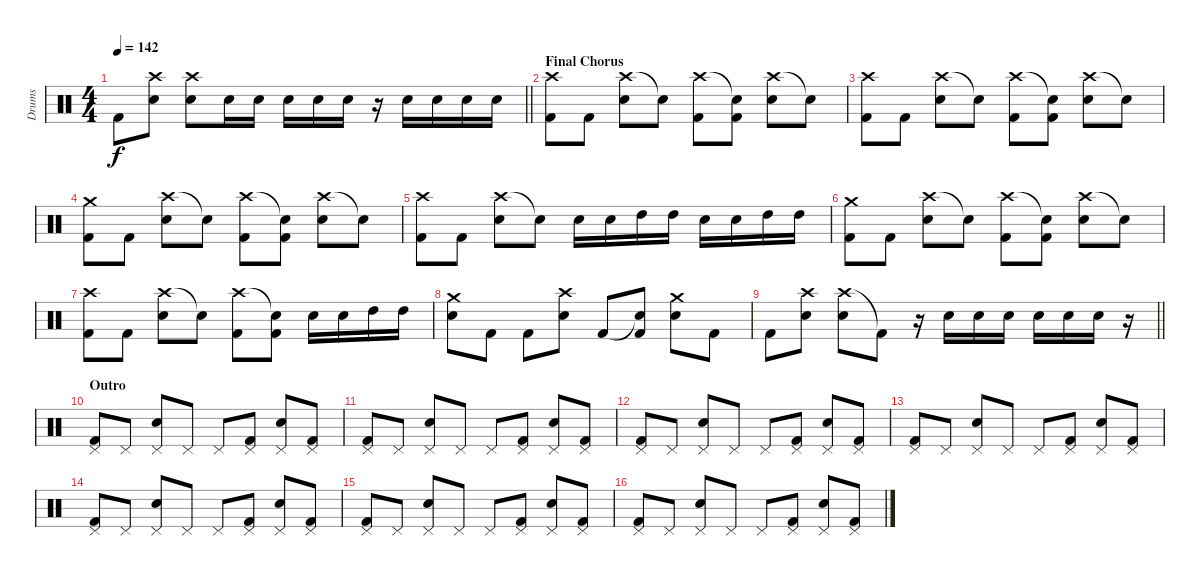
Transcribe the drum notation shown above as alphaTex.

\track ("Drums" "Drums") {instrument percussion}
\staff {score}
\articulation defaults
\ts (4 4)
\tempo 142
\clef neutral
\barLineRight lightlight
\ks c "Kick (hit) 2".8{dy f}
("Crash high (hit)" "Electric Snare (hit)").8 ("Crash high (hit)" "Electric Snare (hit)").8 "Electric Snare (hit)".16 "Electric Snare (hit)".16 "Electric Snare (hit)".16 "Electric Snare (hit)".16 "Electric Snare (hit)".16 r.16 "Electric Snare (hit)".16 "Electric Snare (hit)".16 "Electric Snare (hit)".16 "Electric Snare (hit)".16 |
\section ("" "Final Chorus")
("Crash high (hit)" "Kick (hit) 2").8 "Kick (hit) 2".8 ("Crash high (hit)" "Electric Snare (hit)").8 "Snare (hit)"{t}.8 ("Crash high (hit)" "Kick (hit) 2").8 ("Snare (hit)"{t} "Kick (hit) 2").8 ("Crash high (hit)" "Electric Snare (hit)").8 "Snare (hit)"{t}.8 |
("Crash high (hit)" "Kick (hit) 2").8 "Kick (hit) 2".8 ("Crash high (hit)" "Electric Snare (hit)").8 "Snare (hit)"{t}.8 ("Crash high (hit)" "Kick (hit) 2").8 ("Snare (hit)"{t} "Kick (hit) 2").8 ("Crash high (hit)" "Electric Snare (hit)").8 "Snare (hit)"{t}.8 |
("Crash medium (hit)" "Kick (hit) 2").8 "Kick (hit) 2".8 ("Crash high (hit)" "Electric Snare (hit)").8 "Snare (hit)"{t}.8 ("Crash high (hit)" "Kick (hit) 2").8 ("Snare (hit)"{t} "Kick (hit) 2").8 ("Crash high (hit)" "Electric Snare (hit)").8 "Snare (hit)"{t}.8 |
("Crash high (hit)" "Kick (hit) 2").8 "Kick (hit) 2".8 ("Crash high (hit)" "Electric Snare (hit)").8 "Snare (hit)"{t}.8 "Electric Snare (hit)".16 "Electric Snare (hit)".16 "High Tom (hit)".16 "High Tom (hit)".16 "Electric Snare (hit)".16 "Electric Snare (hit)".16 "High Tom (hit)".16 "High Tom (hit)".16 |
("Crash medium (hit)" "Kick (hit) 2").8 "Kick (hit) 2".8 ("Crash high (hit)" "Electric Snare (hit)").8 "Snare (hit)"{t}.8 ("Crash high (hit)" "Kick (hit) 2").8 ("Snare (hit)"{t} "Kick (hit) 2").8 ("Crash high (hit)" "Electric Snare (hit)").8 "Snare (hit)"{t}.8 |
("Crash high (hit)" "Kick (hit) 2").8 "Kick (hit) 2".8 ("Crash high (hit)" "Electric Snare (hit)").8 "Snare (hit)"{t}.8 ("Crash high (hit)" "Kick (hit) 2").8 ("Snare (hit)"{t} "Kick (hit) 2").8 "Electric Snare (hit)".16 "Electric Snare (hit)".16 "High Tom (hit)".16 "High Tom (hit)".16 |
("Crash medium (hit)" "Electric Snare (hit)").8 "Kick (hit) 2".8 "Kick (hit) 2".8 ("Crash high (hit)" "Electric Snare (hit)").8 "Kick (hit) 2".8 ("Snare (hit)"{t} "Kick (hit) 2").8 ("Crash medium (hit)" "Electric Snare (hit)").8 "Kick (hit) 2".8 |
\barLineRight lightlight "Kick (hit) 2".8
("Crash high (hit)" "Electric Snare (hit)").8 ("Crash high (hit)" "Electric Snare (hit)").8 "Kick (hit) 2"{t}.8 r.16 "Electric Snare (hit)".16 "Electric Snare (hit)".16 "Electric Snare (hit)".16 "Electric Snare (hit)".16 "Electric Snare (hit)".16 "Electric Snare (hit)".16 r.16 |
\section ("" "Outro")
("Pedal Hi-Hat (hit)" "Kick (hit) 2").8 "Pedal Hi-Hat (hit)".8 ("Pedal Hi-Hat (hit)" "Snare (hit) 2").8 "Pedal Hi-Hat (hit)".8 "Pedal Hi-Hat (hit)".8 ("Pedal Hi-Hat (hit)" "Kick (hit) 2").8 ("Pedal Hi-Hat (hit)" "Snare (hit) 2").8 ("Pedal Hi-Hat (hit)" "Kick (hit) 2").8 |
("Pedal Hi-Hat (hit)" "Kick (hit) 2").8 "Pedal Hi-Hat (hit)".8 ("Pedal Hi-Hat (hit)" "Snare (hit) 2").8 "Pedal Hi-Hat (hit)".8 "Pedal Hi-Hat (hit)".8 ("Pedal Hi-Hat (hit)" "Kick (hit) 2").8 ("Pedal Hi-Hat (hit)" "Snare (hit) 2").8 ("Pedal Hi-Hat (hit)" "Kick (hit) 2").8 |
("Pedal Hi-Hat (hit)" "Kick (hit) 2").8 "Pedal Hi-Hat (hit)".8 ("Pedal Hi-Hat (hit)" "Snare (hit) 2").8 "Pedal Hi-Hat (hit)".8 "Pedal Hi-Hat (hit)".8 ("Pedal Hi-Hat (hit)" "Kick (hit) 2").8 ("Pedal Hi-Hat (hit)" "Snare (hit) 2").8 ("Pedal Hi-Hat (hit)" "Kick (hit) 2").8 |
("Pedal Hi-Hat (hit)" "Kick (hit) 2").8 "Pedal Hi-Hat (hit)".8 ("Pedal Hi-Hat (hit)" "Snare (hit) 2").8 "Pedal Hi-Hat (hit)".8 "Pedal Hi-Hat (hit)".8 ("Pedal Hi-Hat (hit)" "Kick (hit) 2").8 ("Pedal Hi-Hat (hit)" "Snare (hit) 2").8 ("Pedal Hi-Hat (hit)" "Kick (hit) 2").8 |
("Pedal Hi-Hat (hit)" "Kick (hit) 2").8{volume 1} "Pedal Hi-Hat (hit)".8 ("Pedal Hi-Hat (hit)" "Snare (hit) 2").8 "Pedal Hi-Hat (hit)".8 "Pedal Hi-Hat (hit)".8 ("Pedal Hi-Hat (hit)" "Kick (hit) 2").8 ("Pedal Hi-Hat (hit)" "Snare (hit) 2").8 ("Pedal Hi-Hat (hit)" "Kick (hit) 2").8 |
("Pedal Hi-Hat (hit)" "Kick (hit) 2").8 "Pedal Hi-Hat (hit)".8 ("Pedal Hi-Hat (hit)" "Snare (hit) 2").8 "Pedal Hi-Hat (hit)".8 "Pedal Hi-Hat (hit)".8 ("Pedal Hi-Hat (hit)" "Kick (hit) 2").8 ("Pedal Hi-Hat (hit)" "Snare (hit) 2").8 ("Pedal Hi-Hat (hit)" "Kick (hit) 2").8 |
("Pedal Hi-Hat (hit)" "Kick (hit) 2").8 "Pedal Hi-Hat (hit)".8 ("Pedal Hi-Hat (hit)" "Snare (hit) 2").8 "Pedal Hi-Hat (hit)".8 "Pedal Hi-Hat (hit)".8 ("Pedal Hi-Hat (hit)" "Kick (hit) 2").8 ("Pedal Hi-Hat (hit)" "Snare (hit) 2").8 ("Pedal Hi-Hat (hit)" "Kick (hit) 2").8
